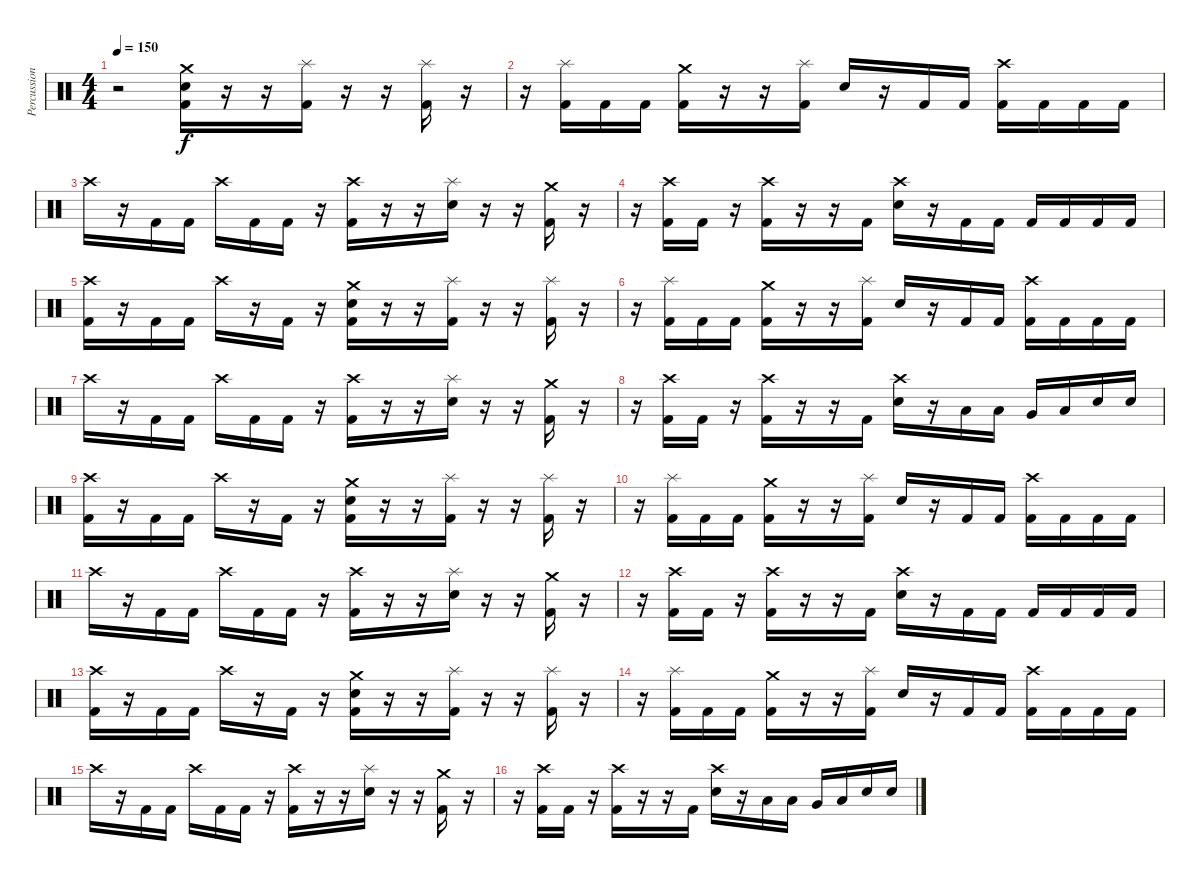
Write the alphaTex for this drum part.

\track ("Percussion" "Percussion") {instrument percussion}
\staff {score}
\articulation defaults
\ts (4 4)
\tempo 150
\clef neutral
\ks c
r.2{dy f} ("Crash medium (hit)" "Electric Snare (hit)" "Kick (hit) 2").16 r.16 r.16 ("Splash (hit)" "Kick (hit) 2").16 r.16 r.16 ("Splash (hit)" "Kick (hit) 2").16 r.16 |
r.16 ("Splash (hit)" "Kick (hit) 2").16 "Kick (hit) 2".16 "Kick (hit) 2".16 ("Crash medium (hit)" "Kick (hit) 2").16 r.16 r.16 ("Splash (hit)" "Kick (hit) 2").16 "Electric Snare (hit)".16 r.16 "Kick (hit) 2".16 "Kick (hit) 2".16 ("Crash high (hit)" "Kick (hit) 2").16 "Kick (hit) 2".16 "Kick (hit) 2".16 "Kick (hit) 2".16 |
"Crash high (hit)".16 r.16 "Kick (hit) 2".16 "Kick (hit) 2".16 "Crash high (hit)".16 "Kick (hit) 2".16 "Kick (hit) 2".16 r.16 ("Crash high (hit)" "Kick (hit) 2").16 r.16 r.16 ("Splash (hit)" "Electric Snare (hit)").16 r.16 r.16 ("Crash medium (hit)" "Kick (hit) 2").16 r.16 |
r.16 ("Crash high (hit)" "Kick (hit) 2").16 "Kick (hit) 2".16 r.16 ("Crash high (hit)" "Kick (hit) 2").16 r.16 r.16 "Kick (hit) 2".16 ("Crash high (hit)" "Electric Snare (hit)").16 r.16 "Kick (hit) 2".16 "Kick (hit) 2".16 "Kick (hit) 2".16 "Kick (hit) 2".16 "Kick (hit) 2".16 "Kick (hit) 2".16 |
("Crash high (hit)" "Kick (hit) 2").16 r.16 "Kick (hit) 2".16 "Kick (hit) 2".16 "Crash high (hit)".16 r.16 "Kick (hit) 2".16 r.16 ("Crash medium (hit)" "Electric Snare (hit)" "Kick (hit) 2").16 r.16 r.16 ("Splash (hit)" "Kick (hit) 2").16 r.16 r.16 ("Splash (hit)" "Kick (hit) 2").16 r.16 |
r.16 ("Splash (hit)" "Kick (hit) 2").16 "Kick (hit) 2".16 "Kick (hit) 2".16 ("Crash medium (hit)" "Kick (hit) 2").16 r.16 r.16 ("Splash (hit)" "Kick (hit) 2").16 "Electric Snare (hit)".16 r.16 "Kick (hit) 2".16 "Kick (hit) 2".16 ("Crash high (hit)" "Kick (hit) 2").16 "Kick (hit) 2".16 "Kick (hit) 2".16 "Kick (hit) 2".16 |
"Crash high (hit)".16 r.16 "Kick (hit) 2".16 "Kick (hit) 2".16 "Crash high (hit)".16 "Kick (hit) 2".16 "Kick (hit) 2".16 r.16 ("Crash high (hit)" "Kick (hit) 2").16 r.16 r.16 ("Splash (hit)" "Electric Snare (hit)").16 r.16 r.16 ("Crash medium (hit)" "Kick (hit) 2").16 r.16 |
r.16 ("Crash high (hit)" "Kick (hit) 2").16 "Kick (hit) 2".16 r.16 ("Crash high (hit)" "Kick (hit) 2").16 r.16 r.16 "Kick (hit) 2".16 ("Crash high (hit)" "Electric Snare (hit)").16 r.16 "Low Tom (hit)".16 "Low Tom (hit)".16 "Very Low Tom (hit)".16 "Low Floor Tom (hit)".16 "Electric Snare (hit)".16 "Electric Snare (hit)".16 |
("Crash high (hit)" "Kick (hit) 2").16 r.16 "Kick (hit) 2".16 "Kick (hit) 2".16 "Crash high (hit)".16 r.16 "Kick (hit) 2".16 r.16 ("Crash medium (hit)" "Electric Snare (hit)" "Kick (hit) 2").16 r.16 r.16 ("Splash (hit)" "Kick (hit) 2").16 r.16 r.16 ("Splash (hit)" "Kick (hit) 2").16 r.16 |
r.16 ("Splash (hit)" "Kick (hit) 2").16 "Kick (hit) 2".16 "Kick (hit) 2".16 ("Crash medium (hit)" "Kick (hit) 2").16 r.16 r.16 ("Splash (hit)" "Kick (hit) 2").16 "Electric Snare (hit)".16 r.16 "Kick (hit) 2".16 "Kick (hit) 2".16 ("Crash high (hit)" "Kick (hit) 2").16 "Kick (hit) 2".16 "Kick (hit) 2".16 "Kick (hit) 2".16 |
"Crash high (hit)".16 r.16 "Kick (hit) 2".16 "Kick (hit) 2".16 "Crash high (hit)".16 "Kick (hit) 2".16 "Kick (hit) 2".16 r.16 ("Crash high (hit)" "Kick (hit) 2").16 r.16 r.16 ("Splash (hit)" "Electric Snare (hit)").16 r.16 r.16 ("Crash medium (hit)" "Kick (hit) 2").16 r.16 |
r.16 ("Crash high (hit)" "Kick (hit) 2").16 "Kick (hit) 2".16 r.16 ("Crash high (hit)" "Kick (hit) 2").16 r.16 r.16 "Kick (hit) 2".16 ("Crash high (hit)" "Electric Snare (hit)").16 r.16 "Kick (hit) 2".16 "Kick (hit) 2".16 "Kick (hit) 2".16 "Kick (hit) 2".16 "Kick (hit) 2".16 "Kick (hit) 2".16 |
("Crash high (hit)" "Kick (hit) 2").16 r.16 "Kick (hit) 2".16 "Kick (hit) 2".16 "Crash high (hit)".16 r.16 "Kick (hit) 2".16 r.16 ("Crash medium (hit)" "Electric Snare (hit)" "Kick (hit) 2").16 r.16 r.16 ("Splash (hit)" "Kick (hit) 2").16 r.16 r.16 ("Splash (hit)" "Kick (hit) 2").16 r.16 |
r.16 ("Splash (hit)" "Kick (hit) 2").16 "Kick (hit) 2".16 "Kick (hit) 2".16 ("Crash medium (hit)" "Kick (hit) 2").16 r.16 r.16 ("Splash (hit)" "Kick (hit) 2").16 "Electric Snare (hit)".16 r.16 "Kick (hit) 2".16 "Kick (hit) 2".16 ("Crash high (hit)" "Kick (hit) 2").16 "Kick (hit) 2".16 "Kick (hit) 2".16 "Kick (hit) 2".16 |
"Crash high (hit)".16 r.16 "Kick (hit) 2".16 "Kick (hit) 2".16 "Crash high (hit)".16 "Kick (hit) 2".16 "Kick (hit) 2".16 r.16 ("Crash high (hit)" "Kick (hit) 2").16 r.16 r.16 ("Splash (hit)" "Electric Snare (hit)").16 r.16 r.16 ("Crash medium (hit)" "Kick (hit) 2").16 r.16 |
r.16 ("Crash high (hit)" "Kick (hit) 2").16 "Kick (hit) 2".16 r.16 ("Crash high (hit)" "Kick (hit) 2").16 r.16 r.16 "Kick (hit) 2".16 ("Crash high (hit)" "Electric Snare (hit)").16 r.16 "Low Tom (hit)".16 "Low Tom (hit)".16 "Very Low Tom (hit)".16 "Low Floor Tom (hit)".16 "Electric Snare (hit)".16 "Electric Snare (hit)".16
